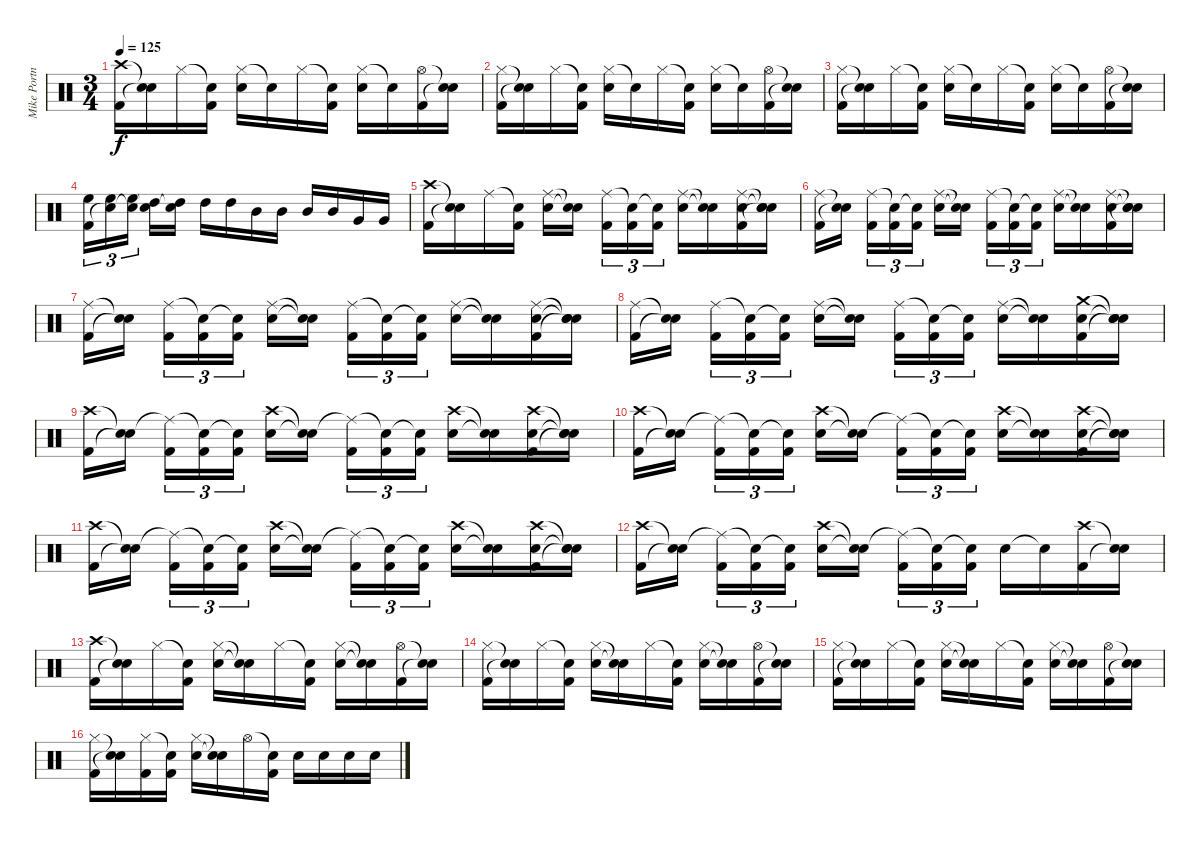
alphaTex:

\track ("Mike Portnoy Drums" "Mike Portn") {instrument percussion}
\staff {score}
\articulation defaults
\ts (3 4)
\tempo 125
\clef neutral
\ks c
("Crash high (hit)" "Kick (hit) 2").16{dy f} ("Snare (hit)"{t} "Snare (hit)"{t}).16 "Hi-Hat (closed)".16 ("Snare (hit)"{t} "Kick (hit) 2").16 ("Hi-Hat (closed)" "Snare (hit) 2").16 "Snare (hit)"{t}.16 "Hi-Hat (closed)".16 ("Snare (hit)"{t} "Kick (hit) 2").16 ("Hi-Hat (closed)" "Snare (hit) 2").16 "Snare (hit)"{t}.16 ("Hi-Hat (open)" "Kick (hit) 2").16 ("Snare (hit)"{t} "Snare (hit)"{t}).16 |
("Hi-Hat (closed)" "Kick (hit) 2").16 ("Snare (hit)"{t} "Snare (hit)"{t}).16 "Hi-Hat (closed)".16 ("Snare (hit)"{t} "Kick (hit) 2").16 ("Hi-Hat (closed)" "Snare (hit) 2").16 "Snare (hit)"{t}.16 "Hi-Hat (closed)".16 ("Snare (hit)"{t} "Kick (hit) 2").16 ("Hi-Hat (closed)" "Snare (hit) 2").16 "Snare (hit)"{t}.16 ("Hi-Hat (open)" "Kick (hit) 2").16 ("Snare (hit)"{t} "Snare (hit)"{t}).16 |
("Hi-Hat (closed)" "Kick (hit) 2").16 ("Snare (hit)"{t} "Snare (hit)"{t}).16 "Hi-Hat (closed)".16 ("Snare (hit)"{t} "Kick (hit) 2").16 ("Hi-Hat (closed)" "Snare (hit) 2").16 "Snare (hit)"{t}.16 "Hi-Hat (closed)".16 ("Snare (hit)"{t} "Kick (hit) 2").16 ("Hi-Hat (closed)" "Snare (hit) 2").16 "Snare (hit)"{t}.16 ("Hi-Hat (open)" "Kick (hit) 2").16 ("Snare (hit)"{t} "Snare (hit)"{t}).16 |
("High Floor Tom (hit)" "Kick (hit) 2").16{tu (3 2)} ("High Floor Tom (hit)" "Snare (hit)"{t}).16{tu (3 2)} ("High Floor Tom (hit)" "Snare (hit)"{t}).16{tu (3 2)} ("High Tom (hit)" "Snare (hit)"{t}).16 ("High Tom (hit)" "Snare (hit)"{t}).16 "High Tom (hit)".16 "High Tom (hit)".16 "Mid Tom (hit)".16 "Mid Tom (hit)".16 "Mid Tom (hit)".16 "Mid Tom (hit)".16 "Very Low Tom (hit)".16 "Very Low Tom (hit)".16 |
("Crash high (hit)" "Kick (hit) 2").16 ("Snare (hit)"{t} "Snare (hit)"{t}).16 "Ride (middle)".16 ("Snare (hit)"{t} "Kick (hit) 2").16 ("Ride (middle)" "Snare (hit) 2").16 ("Snare (hit)"{t} "Snare (hit)"{t}).16 ("Ride (middle)" "Kick (hit) 2").16{tu (3 2)} ("Snare (hit)"{t} "Kick (hit) 2").16{tu (3 2)} ("Snare (hit)"{t} "Kick (hit) 2").16{tu (3 2)} ("Ride (middle)" "Snare (hit) 2").16 ("Snare (hit)"{t} "Snare (hit)"{t}).16 ("Ride (middle)" "Snare (hit) 2" "Kick (hit) 2").16 ("Snare (hit)"{t} "Snare (hit)"{t} "Snare (hit)"{t}).16 |
("Ride (middle)" "Kick (hit) 2").16 ("Snare (hit)"{t} "Snare (hit)"{t}).16 ("Ride (middle)" "Kick (hit) 2").16{tu (3 2)} ("Snare (hit)"{t} "Kick (hit) 2").16{tu (3 2)} ("Snare (hit)"{t} "Kick (hit) 2").16{tu (3 2)} ("Ride (middle)" "Snare (hit) 2").16 ("Snare (hit)"{t} "Snare (hit)"{t}).16 ("Ride (middle)" "Kick (hit) 2").16{tu (3 2)} ("Snare (hit)"{t} "Kick (hit) 2").16{tu (3 2)} ("Snare (hit)"{t} "Kick (hit) 2").16{tu (3 2)} ("Ride (middle)" "Snare (hit) 2").16 ("Snare (hit)"{t} "Snare (hit)"{t}).16 ("Ride (middle)" "Snare (hit) 2" "Kick (hit) 2").16 ("Snare (hit)"{t} "Snare (hit)"{t} "Snare (hit)"{t}).16 |
("Ride (middle)" "Kick (hit) 2").16 ("Snare (hit)"{t} "Snare (hit)"{t}).16 ("Ride (middle)" "Kick (hit) 2").16{tu (3 2)} ("Snare (hit)"{t} "Kick (hit) 2").16{tu (3 2)} ("Snare (hit)"{t} "Kick (hit) 2").16{tu (3 2)} ("Ride (middle)" "Snare (hit) 2").16 ("Snare (hit)"{t} "Snare (hit)"{t}).16 ("Ride (middle)" "Kick (hit) 2").16{tu (3 2)} ("Snare (hit)"{t} "Kick (hit) 2").16{tu (3 2)} ("Snare (hit)"{t} "Kick (hit) 2").16{tu (3 2)} ("Ride (middle)" "Snare (hit) 2").16 ("Snare (hit)"{t} "Snare (hit)"{t}).16 ("Ride (middle)" "Snare (hit) 2" "Kick (hit) 2").16 ("Snare (hit)"{t} "Snare (hit)"{t} "Snare (hit)"{t}).16 |
("Ride (middle)" "Kick (hit) 2").16 ("Snare (hit)"{t} "Snare (hit)"{t}).16 ("Ride (middle)" "Kick (hit) 2").16{tu (3 2)} ("Snare (hit)"{t} "Kick (hit) 2").16{tu (3 2)} ("Snare (hit)"{t} "Kick (hit) 2").16{tu (3 2)} ("Ride (middle)" "Snare (hit) 2").16 ("Snare (hit)"{t} "Snare (hit)"{t}).16 ("Ride (middle)" "Kick (hit) 2").16{tu (3 2)} ("Snare (hit)"{t} "Kick (hit) 2").16{tu (3 2)} ("Snare (hit)"{t} "Kick (hit) 2").16{tu (3 2)} ("Ride (middle)" "Snare (hit) 2").16 ("Snare (hit)"{t} "Snare (hit)"{t}).16 ("Crash medium (hit)" "Snare (hit) 2" "Kick (hit) 2").16 ("Snare (hit)"{t} "Snare (hit)"{t} "Snare (hit)"{t}).16 |
("Crash high (hit)" "Kick (hit) 2").16 ("Snare (hit)"{t} "Snare (hit)"{t}).16 ("Ride (middle)"{t} "Kick (hit) 2").16{tu (3 2)} ("Snare (hit)"{t} "Kick (hit) 2").16{tu (3 2)} ("Snare (hit)"{t} "Kick (hit) 2").16{tu (3 2)} ("Crash high (hit)" "Snare (hit) 2").16 ("Snare (hit)"{t} "Snare (hit)"{t}).16 ("Ride (middle)"{t} "Kick (hit) 2").16{tu (3 2)} ("Snare (hit)"{t} "Kick (hit) 2").16{tu (3 2)} ("Snare (hit)"{t} "Kick (hit) 2").16{tu (3 2)} ("Crash high (hit)" "Snare (hit) 2").16 ("Snare (hit)"{t} "Snare (hit)"{t}).16 ("Crash high (hit)" "Snare (hit) 2" "Kick (hit) 2").16 ("Snare (hit)"{t} "Snare (hit)"{t} "Snare (hit)"{t}).16 |
("Crash high (hit)" "Kick (hit) 2").16 ("Snare (hit)"{t} "Snare (hit)"{t}).16 ("Ride (middle)"{t} "Kick (hit) 2").16{tu (3 2)} ("Snare (hit)"{t} "Kick (hit) 2").16{tu (3 2)} ("Snare (hit)"{t} "Kick (hit) 2").16{tu (3 2)} ("Crash high (hit)" "Snare (hit) 2").16 ("Snare (hit)"{t} "Snare (hit)"{t}).16 ("Ride (middle)"{t} "Kick (hit) 2").16{tu (3 2)} ("Snare (hit)"{t} "Kick (hit) 2").16{tu (3 2)} ("Snare (hit)"{t} "Kick (hit) 2").16{tu (3 2)} ("Crash high (hit)" "Snare (hit) 2").16 ("Snare (hit)"{t} "Snare (hit)"{t}).16 ("Crash high (hit)" "Snare (hit) 2" "Kick (hit) 2").16 ("Snare (hit)"{t} "Snare (hit)"{t} "Snare (hit)"{t}).16 |
("Crash high (hit)" "Kick (hit) 2").16 ("Snare (hit)"{t} "Snare (hit)"{t}).16 ("Ride (middle)"{t} "Kick (hit) 2").16{tu (3 2)} ("Snare (hit)"{t} "Kick (hit) 2").16{tu (3 2)} ("Snare (hit)"{t} "Kick (hit) 2").16{tu (3 2)} ("Crash high (hit)" "Snare (hit) 2").16 ("Snare (hit)"{t} "Snare (hit)"{t}).16 ("Ride (middle)"{t} "Kick (hit) 2").16{tu (3 2)} ("Snare (hit)"{t} "Kick (hit) 2").16{tu (3 2)} ("Snare (hit)"{t} "Kick (hit) 2").16{tu (3 2)} ("Crash high (hit)" "Snare (hit) 2").16 ("Snare (hit)"{t} "Snare (hit)"{t}).16 ("Crash high (hit)" "Snare (hit) 2" "Kick (hit) 2").16 ("Snare (hit)"{t} "Snare (hit)"{t} "Snare (hit)"{t}).16 |
("Crash high (hit)" "Kick (hit) 2").16 ("Snare (hit)"{t} "Snare (hit)"{t}).16 ("Ride (middle)"{t} "Kick (hit) 2").16{tu (3 2)} ("Snare (hit)"{t} "Kick (hit) 2").16{tu (3 2)} ("Snare (hit)"{t} "Kick (hit) 2").16{tu (3 2)} ("Crash high (hit)" "Snare (hit) 2").16 ("Snare (hit)"{t} "Snare (hit)"{t}).16 ("Ride (middle)"{t} "Kick (hit) 2").16{tu (3 2)} ("Snare (hit)"{t} "Kick (hit) 2").16{tu (3 2)} ("Snare (hit)"{t} "Kick (hit) 2").16{tu (3 2)} "Snare (hit) 2".16 "Snare (hit)"{t}.16 ("Crash high (hit)" "Kick (hit) 2").16 ("Snare (hit)"{t} "Snare (hit)"{t}).16 |
("Crash high (hit)" "Kick (hit) 2").16 ("Snare (hit)"{t} "Snare (hit)"{t}).16 "Hi-Hat (closed)".16 ("Snare (hit)"{t} "Kick (hit) 2").16 ("Hi-Hat (closed)" "Snare (hit) 2").16 ("Snare (hit)"{t} "Snare (hit)"{t}).16 "Hi-Hat (closed)".16 ("Snare (hit)"{t} "Kick (hit) 2").16 ("Hi-Hat (closed)" "Snare (hit) 2").16 ("Snare (hit)"{t} "Snare (hit)"{t}).16 ("Hi-Hat (open)" "Kick (hit) 2").16 ("Snare (hit)"{t} "Snare (hit)"{t}).16 |
("Hi-Hat (closed)" "Kick (hit) 2").16 ("Snare (hit)"{t} "Snare (hit)"{t}).16 "Hi-Hat (closed)".16 ("Snare (hit)"{t} "Kick (hit) 2").16 ("Hi-Hat (closed)" "Snare (hit) 2").16 ("Snare (hit)"{t} "Snare (hit)"{t}).16 "Hi-Hat (closed)".16 ("Snare (hit)"{t} "Kick (hit) 2").16 ("Hi-Hat (closed)" "Snare (hit) 2").16 ("Snare (hit)"{t} "Snare (hit)"{t}).16 ("Hi-Hat (open)" "Kick (hit) 2").16 ("Snare (hit)"{t} "Snare (hit)"{t}).16 |
("Hi-Hat (closed)" "Kick (hit) 2").16 ("Snare (hit)"{t} "Snare (hit)"{t}).16 "Hi-Hat (closed)".16 ("Snare (hit)"{t} "Kick (hit) 2").16 ("Hi-Hat (closed)" "Snare (hit) 2").16 ("Snare (hit)"{t} "Snare (hit)"{t}).16 "Hi-Hat (closed)".16 ("Snare (hit)"{t} "Kick (hit) 2").16 ("Hi-Hat (closed)" "Snare (hit) 2").16 ("Snare (hit)"{t} "Snare (hit)"{t}).16 ("Hi-Hat (open)" "Kick (hit) 2").16 ("Snare (hit)"{t} "Snare (hit)"{t}).16 |
("Hi-Hat (closed)" "Kick (hit) 2").16 ("Snare (hit)"{t} "Snare (hit)"{t}).16 ("Hi-Hat (closed)" "Kick (hit) 2").16 ("Snare (hit)"{t} "Kick (hit) 2").16 ("Hi-Hat (closed)" "Snare (hit) 2").16 ("Snare (hit)"{t} "Snare (hit)"{t}).16 "Hi-Hat (open)".16 ("Snare (hit)"{t} "Kick (hit) 2").16 "Snare (hit) 2".16 "Snare (hit) 2".16 "Snare (hit) 2".16 "Snare (hit) 2".16
